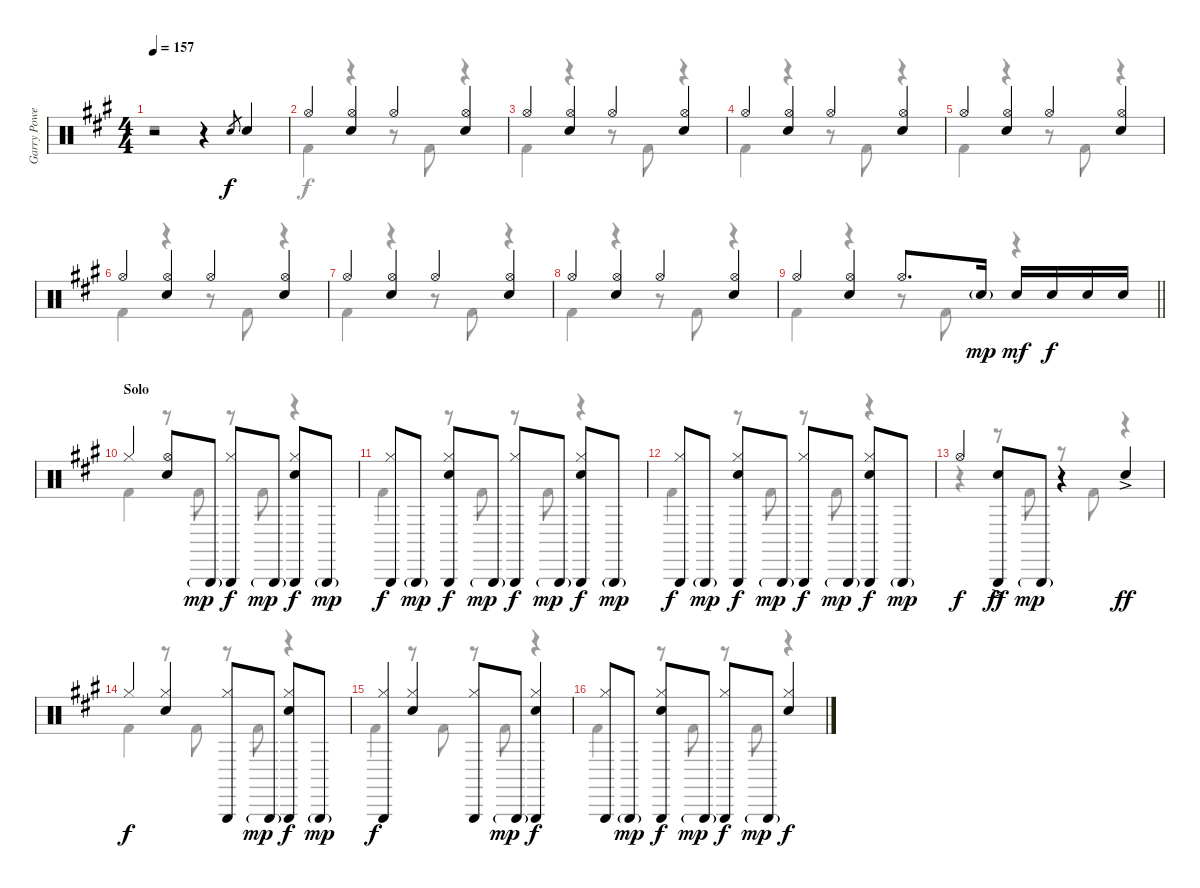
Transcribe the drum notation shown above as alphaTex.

\track ("Garry Powell" "Garry Powe") {instrument percussion}
\staff {score}
\articulation defaults
\voice
\ts (4 4)
\tempo 157
\clef neutral
\ks a
r.2{dy ff} r.4 "Electric Snare (hit)".8{gr dy f} "Electric Snare (hit)".4 |
"Hi-Hat (open)".4 ("Hi-Hat (open)" "Electric Snare (hit)").4 "Hi-Hat (open)".4 ("Hi-Hat (open)" "Electric Snare (hit)").4 |
"Hi-Hat (open)".4 ("Hi-Hat (open)" "Electric Snare (hit)").4 "Hi-Hat (open)".4 ("Hi-Hat (open)" "Electric Snare (hit)").4 |
"Hi-Hat (open)".4 ("Hi-Hat (open)" "Electric Snare (hit)").4 "Hi-Hat (open)".4 ("Hi-Hat (open)" "Electric Snare (hit)").4 |
"Hi-Hat (open)".4 ("Hi-Hat (open)" "Electric Snare (hit)").4 "Hi-Hat (open)".4 ("Hi-Hat (open)" "Electric Snare (hit)").4 |
"Hi-Hat (open)".4 ("Hi-Hat (open)" "Electric Snare (hit)").4 "Hi-Hat (open)".4 ("Hi-Hat (open)" "Electric Snare (hit)").4 |
"Hi-Hat (open)".4 ("Hi-Hat (open)" "Electric Snare (hit)").4 "Hi-Hat (open)".4 ("Hi-Hat (open)" "Electric Snare (hit)").4 |
"Hi-Hat (open)".4 ("Hi-Hat (open)" "Electric Snare (hit)").4 "Hi-Hat (open)".4 ("Hi-Hat (open)" "Electric Snare (hit)").4 |
\barLineRight lightlight "Hi-Hat (open)".4
("Hi-Hat (open)" "Electric Snare (hit)").4 "Hi-Hat (open)".8{d} "Electric Snare (hit)"{g}.16{dy mp} "Electric Snare (hit)".16{dy mf} "Electric Snare (hit)".16{dy f} "Electric Snare (hit)".16 "Electric Snare (hit)".16 |
\section ("" "Solo")
"Hi-Hat (closed)".4 ("Hi-Hat (open)" "Electric Snare (hit)").8 "Triangle (hit)"{g}.8{dy mp} ("Triangle (hit)" "Hi-Hat (closed)").8{dy f} "Triangle (hit)"{g}.8{dy mp} ("Triangle (hit)" "Hi-Hat (closed)" "Electric Snare (hit)").8{dy f} "Triangle (hit)"{g}.8{dy mp} |
("Triangle (hit)" "Hi-Hat (closed)").8{dy f} "Triangle (hit)"{g}.8{dy mp} ("Triangle (hit)" "Hi-Hat (closed)" "Electric Snare (hit)").8{dy f} "Triangle (hit)"{g}.8{dy mp} ("Triangle (hit)" "Hi-Hat (closed)").8{dy f} "Triangle (hit)"{g}.8{dy mp} ("Triangle (hit)" "Hi-Hat (closed)" "Electric Snare (hit)").8{dy f} "Triangle (hit)"{g}.8{dy mp} |
("Triangle (hit)" "Hi-Hat (closed)").8{dy f} "Triangle (hit)"{g}.8{dy mp} ("Triangle (hit)" "Hi-Hat (closed)" "Electric Snare (hit)").8{dy f} "Triangle (hit)"{g}.8{dy mp} ("Triangle (hit)" "Hi-Hat (closed)").8{dy f} "Triangle (hit)"{g}.8{dy mp} ("Triangle (hit)" "Hi-Hat (closed)" "Electric Snare (hit)").8{dy f} "Triangle (hit)"{g}.8{dy mp} |
"Hi-Hat (open)".4{dy f} ("Triangle (hit)" "Electric Snare (hit)"{ac}).8{dy ff} "Triangle (hit)"{g}.8{dy mp} r.4 "Electric Snare (hit)"{ac}.4{dy ff} |
"Hi-Hat (closed)".4{dy f} ("Hi-Hat (closed)" "Electric Snare (hit)").4 ("Triangle (hit)" "Hi-Hat (closed)").8 "Triangle (hit)"{g}.8{dy mp} ("Triangle (hit)" "Hi-Hat (closed)" "Electric Snare (hit)").8{dy f} "Triangle (hit)"{g}.8{dy mp} |
("Triangle (hit)" "Hi-Hat (closed)").4{dy f} ("Hi-Hat (closed)" "Electric Snare (hit)").4 ("Triangle (hit)" "Hi-Hat (closed)").8 "Triangle (hit)"{g}.8{dy mp} ("Triangle (hit)" "Hi-Hat (closed)" "Electric Snare (hit)").4{dy f} |
("Triangle (hit)" "Hi-Hat (closed)").8 "Triangle (hit)"{g}.8{dy mp} ("Triangle (hit)" "Hi-Hat (closed)" "Electric Snare (hit)").8{dy f} "Triangle (hit)"{g}.8{dy mp} ("Triangle (hit)" "Hi-Hat (closed)").8{dy f} "Triangle (hit)"{g}.8{dy mp} ("Hi-Hat (closed)" "Electric Snare (hit)").4{dy f}
\voice
\clef neutral
\ottava regular
\simile none
\ks a
r.1{dy ff} |
"Kick (hit) 2".4{dy f} r.4 r.8 "Kick (hit) 2".8 r.4 |
"Kick (hit) 2".4 r.4 r.8 "Kick (hit) 2".8 r.4 |
"Kick (hit) 2".4 r.4 r.8 "Kick (hit) 2".8 r.4 |
"Kick (hit) 2".4 r.4 r.8 "Kick (hit) 2".8 r.4 |
"Kick (hit) 2".4 r.4 r.8 "Kick (hit) 2".8 r.4 |
"Kick (hit) 2".4 r.4 r.8 "Kick (hit) 2".8 r.4 |
"Kick (hit) 2".4 r.4 r.8 "Kick (hit) 2".8 r.4 |
\barLineRight lightlight "Kick (hit) 2".4
r.4 r.8 "Kick (hit) 2".8 r.4 |
"Kick (hit) 2".4 r.8 "Kick (hit) 2".8 r.8 "Kick (hit) 2".8 r.4 |
"Kick (hit) 2".4 r.8 "Kick (hit) 2".8 r.8 "Kick (hit) 2".8 r.4 |
"Kick (hit) 2".4 r.8 "Kick (hit) 2".8 r.8 "Kick (hit) 2".8 r.4 |
r.4 r.8 "Kick (hit) 2".8 r.8 "Kick (hit) 2".8 r.4 |
"Kick (hit) 2".4 r.8 "Kick (hit) 2".8 r.8 "Kick (hit) 2".8 r.4 |
"Kick (hit) 2".4 r.8 "Kick (hit) 2".8 r.8 "Kick (hit) 2".8 r.4 |
"Kick (hit) 2".4 r.8 "Kick (hit) 2".8 r.8 "Kick (hit) 2".8 r.4
